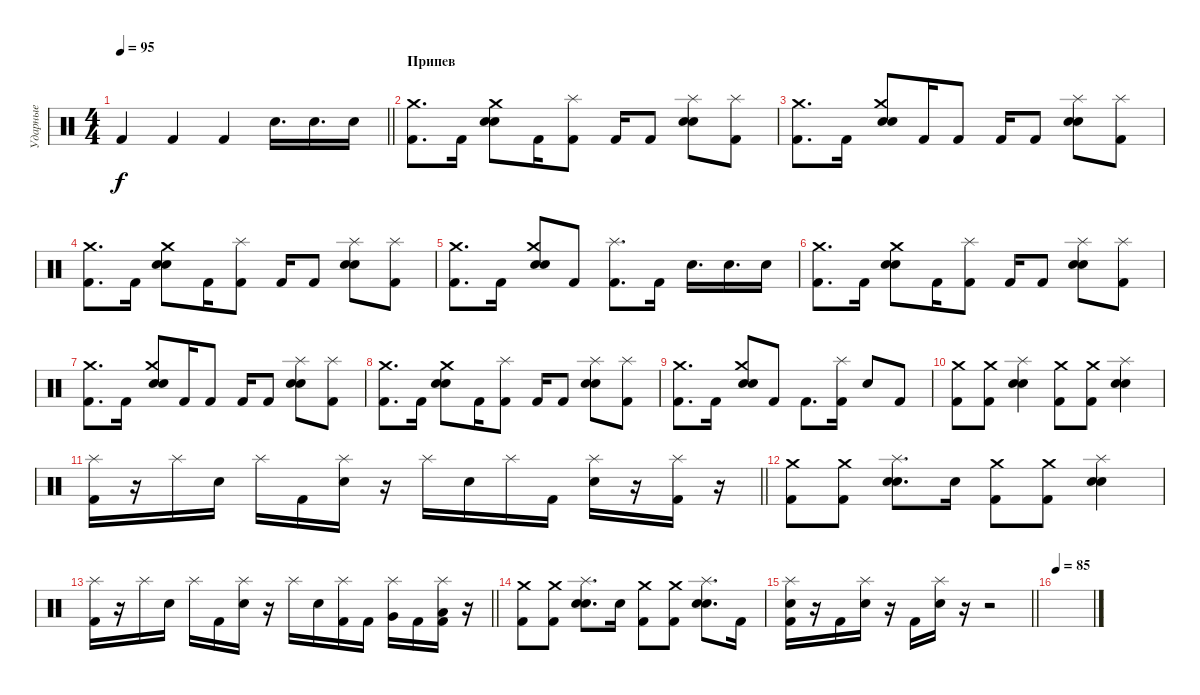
\track ("Ударные" "Ударные") {instrument percussion}
\staff {score}
\articulation defaults
\ts (4 4)
\tempo 95
\clef neutral
\barLineRight lightlight
\ks c "Kick (hit) 2".4{dy f} "Kick (hit) 2".4 "Kick (hit) 2".4 "Electric Snare (hit)".16{d} "Electric Snare (hit)".16{d} "Electric Snare (hit)".16
|
\section ("" "Припев")
("Crash medium (hit)" "Kick (hit) 2").8{d} "Kick (hit) 2".16 ("Crash medium (hit)" "Electric Snare (hit)" "Snare (hit) 2").8 "Kick (hit) 2".16 ("Splash (hit)" "Kick (hit) 2").8 "Kick (hit) 2".16 "Kick (hit) 2".8 ("Splash (hit)" "Electric Snare (hit)" "Snare (hit) 2").8 ("Splash (hit)" "Kick (hit) 2").8 |
("Crash medium (hit)" "Kick (hit) 2").8{d} "Kick (hit) 2".16 ("Crash medium (hit)" "Electric Snare (hit)" "Snare (hit) 2").8 "Kick (hit) 2".16 "Kick (hit) 2".8 "Kick (hit) 2".16 "Kick (hit) 2".8 ("Splash (hit)" "Electric Snare (hit)" "Snare (hit) 2").8 ("Splash (hit)" "Kick (hit) 2").8 |
("Crash medium (hit)" "Kick (hit) 2").8{d} "Kick (hit) 2".16 ("Crash medium (hit)" "Electric Snare (hit)" "Snare (hit) 2").8 "Kick (hit) 2".16 ("Splash (hit)" "Kick (hit) 2").8 "Kick (hit) 2".16 "Kick (hit) 2".8 ("Splash (hit)" "Electric Snare (hit)" "Snare (hit) 2").8 ("Splash (hit)" "Kick (hit) 2").8 |
("Crash medium (hit)" "Kick (hit) 2").8{d} "Kick (hit) 2".16 ("Crash medium (hit)" "Electric Snare (hit)" "Snare (hit) 2").8 "Kick (hit) 2".8 ("Splash (hit)" "Kick (hit) 2").8{d} "Kick (hit) 2".16 "Electric Snare (hit)".16{d} "Electric Snare (hit)".16{d} "Electric Snare (hit)".16 |
("Crash medium (hit)" "Kick (hit) 2").8{d} "Kick (hit) 2".16 ("Crash medium (hit)" "Electric Snare (hit)" "Snare (hit) 2").8 "Kick (hit) 2".16 ("Splash (hit)" "Kick (hit) 2").8 "Kick (hit) 2".16 "Kick (hit) 2".8 ("Splash (hit)" "Electric Snare (hit)" "Snare (hit) 2").8 ("Splash (hit)" "Kick (hit) 2").8 |
("Crash medium (hit)" "Kick (hit) 2").8{d} "Kick (hit) 2".16 ("Crash medium (hit)" "Electric Snare (hit)" "Snare (hit) 2").8 "Kick (hit) 2".16 "Kick (hit) 2".8 "Kick (hit) 2".16 "Kick (hit) 2".8 ("Splash (hit)" "Electric Snare (hit)" "Snare (hit) 2").8 ("Splash (hit)" "Kick (hit) 2").8 |
("Crash medium (hit)" "Kick (hit) 2").8{d} "Kick (hit) 2".16 ("Crash medium (hit)" "Electric Snare (hit)" "Snare (hit) 2").8 "Kick (hit) 2".16 ("Splash (hit)" "Kick (hit) 2").8 "Kick (hit) 2".16 "Kick (hit) 2".8 ("Splash (hit)" "Electric Snare (hit)" "Snare (hit) 2").8 ("Splash (hit)" "Kick (hit) 2").8 |
("Crash medium (hit)" "Kick (hit) 2").8{d} "Kick (hit) 2".16 ("Crash medium (hit)" "Electric Snare (hit)" "Snare (hit) 2").8 "Kick (hit) 2".8 "Kick (hit) 2".8{d} ("Splash (hit)" "Kick (hit) 2").16 "Electric Snare (hit)".8 "Kick (hit) 2".8 |
("Crash medium (hit)" "Kick (hit) 2").8 ("Crash medium (hit)" "Kick (hit) 2").8 ("Splash (hit)" "Electric Snare (hit)" "Snare (hit) 2").4 ("Crash medium (hit)" "Kick (hit) 2").8 ("Crash medium (hit)" "Kick (hit) 2").8 ("Splash (hit)" "Electric Snare (hit)" "Snare (hit) 2").4 |
\barLineRight lightlight
("Splash (hit)" "Kick (hit) 2").16 r.16 "Splash (hit)".16 "Electric Snare (hit)".16 "Splash (hit)".16 "Kick (hit) 2".16 ("Splash (hit)" "Electric Snare (hit)").16 r.16 "Splash (hit)".16 "Electric Snare (hit)".16 "Splash (hit)".16 "Kick (hit) 2".16 ("Splash (hit)" "Electric Snare (hit)").16 r.16 ("Splash (hit)" "Kick (hit) 2").16 r.16 |
("Crash medium (hit)" "Kick (hit) 2").8 ("Crash medium (hit)" "Kick (hit) 2").8 ("Splash (hit)" "Electric Snare (hit)" "Snare (hit) 2").8{d} "Electric Snare (hit)".16 ("Crash medium (hit)" "Kick (hit) 2").8 ("Crash medium (hit)" "Kick (hit) 2").8 ("Splash (hit)" "Electric Snare (hit)" "Snare (hit) 2").4 |
\barLineRight lightlight
("Splash (hit)" "Kick (hit) 2").16 r.16 "Splash (hit)".16 "Electric Snare (hit)".16 "Splash (hit)".16 "Kick (hit) 2".16 ("Splash (hit)" "Electric Snare (hit)").16 r.16 "Splash (hit)".16 "Electric Snare (hit)".16 ("Splash (hit)" "Kick (hit) 2").16 "Kick (hit) 2".16 ("Splash (hit)" "Very Low Tom (hit)").16 "Kick (hit) 2".16 ("Splash (hit)" "Low Tom (hit)" "Kick (hit) 2").16 r.16 |
("Crash medium (hit)" "Kick (hit) 2").8 ("Crash medium (hit)" "Kick (hit) 2").8 ("Splash (hit)" "Electric Snare (hit)" "Snare (hit) 2").8{d} "Electric Snare (hit)".16 ("Crash medium (hit)" "Kick (hit) 2").8 ("Crash medium (hit)" "Kick (hit) 2").8 ("Splash (hit)" "Electric Snare (hit)" "Snare (hit) 2").8{d} "Kick (hit) 2".16 |
\barLineRight lightlight
("Splash (hit)" "Electric Snare (hit)" "Kick (hit) 2").16 r.16 "Kick (hit) 2".16 ("Splash (hit)" "Electric Snare (hit)").16 r.16 "Kick (hit) 2".16 ("Splash (hit)" "Electric Snare (hit)").16 r.16 r.2 |
\tempo 85
